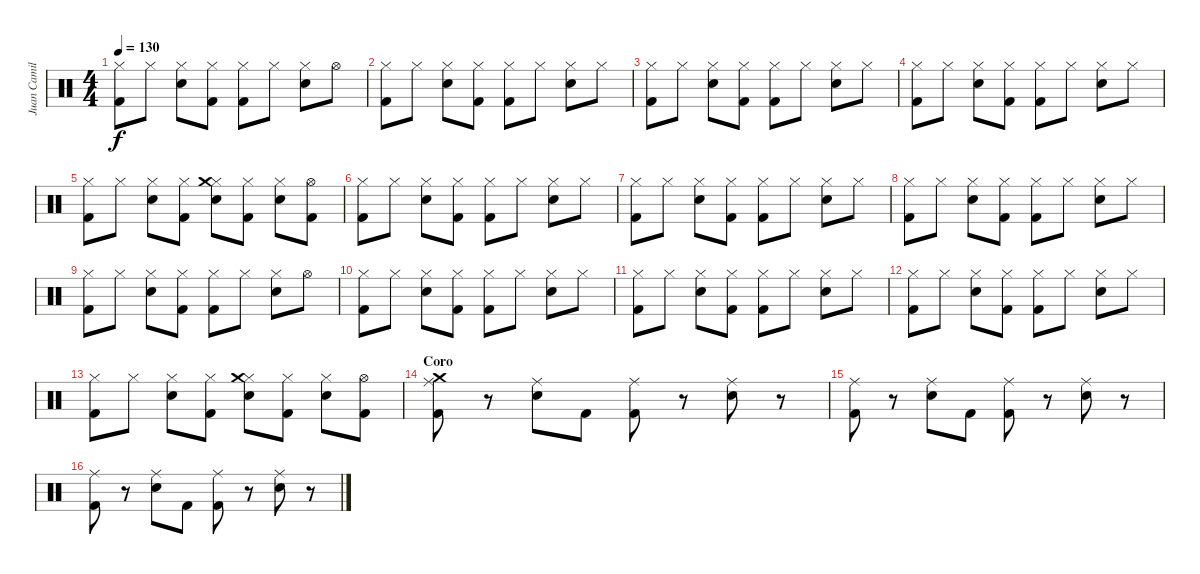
\track ("Juan Camilo" "Juan Camil") {instrument percussion}
\staff {score}
\articulation defaults
\ts (4 4)
\tempo 130
\clef neutral
\ks c
("Hi-Hat (closed)" "Kick (hit) 2").8{dy f} "Hi-Hat (closed)".8 ("Hi-Hat (closed)" "Electric Snare (hit)").8 ("Hi-Hat (closed)" "Kick (hit) 2").8 ("Hi-Hat (closed)" "Kick (hit) 2").8 "Hi-Hat (closed)".8 ("Hi-Hat (closed)" "Electric Snare (hit)").8 "Hi-Hat (open)".8 |
("Hi-Hat (closed)" "Kick (hit) 2").8 "Hi-Hat (closed)".8 ("Hi-Hat (closed)" "Electric Snare (hit)").8 ("Hi-Hat (closed)" "Kick (hit) 2").8 ("Hi-Hat (closed)" "Kick (hit) 2").8 "Hi-Hat (closed)".8 ("Hi-Hat (closed)" "Electric Snare (hit)").8 "Hi-Hat (closed)".8 |
("Hi-Hat (closed)" "Kick (hit) 2").8 "Hi-Hat (closed)".8 ("Hi-Hat (closed)" "Electric Snare (hit)").8 ("Hi-Hat (closed)" "Kick (hit) 2").8 ("Hi-Hat (closed)" "Kick (hit) 2").8 "Hi-Hat (closed)".8 ("Hi-Hat (closed)" "Electric Snare (hit)").8 "Hi-Hat (closed)".8 |
("Hi-Hat (closed)" "Kick (hit) 2").8 "Hi-Hat (closed)".8 ("Hi-Hat (closed)" "Electric Snare (hit)").8 ("Hi-Hat (closed)" "Kick (hit) 2").8 ("Hi-Hat (closed)" "Kick (hit) 2").8 "Hi-Hat (closed)".8 ("Hi-Hat (closed)" "Electric Snare (hit)").8 "Hi-Hat (closed)".8 |
("Hi-Hat (closed)" "Kick (hit) 2").8 "Hi-Hat (closed)".8 ("Hi-Hat (closed)" "Electric Snare (hit)").8 ("Hi-Hat (closed)" "Kick (hit) 2").8 ("Hi-Hat (closed)" "Electric Snare (hit)" "Crash medium (hit)").8 ("Hi-Hat (closed)" "Kick (hit) 2").8 ("Hi-Hat (closed)" "Electric Snare (hit)").8 ("Hi-Hat (open)" "Kick (hit) 2").8 |
("Hi-Hat (closed)" "Kick (hit) 2").8 "Hi-Hat (closed)".8 ("Hi-Hat (closed)" "Electric Snare (hit)").8 ("Hi-Hat (closed)" "Kick (hit) 2").8 ("Hi-Hat (closed)" "Kick (hit) 2").8 "Hi-Hat (closed)".8 ("Hi-Hat (closed)" "Electric Snare (hit)").8 "Hi-Hat (closed)".8 |
("Hi-Hat (closed)" "Kick (hit) 2").8 "Hi-Hat (closed)".8 ("Hi-Hat (closed)" "Electric Snare (hit)").8 ("Hi-Hat (closed)" "Kick (hit) 2").8 ("Hi-Hat (closed)" "Kick (hit) 2").8 "Hi-Hat (closed)".8 ("Hi-Hat (closed)" "Electric Snare (hit)").8 "Hi-Hat (closed)".8 |
("Hi-Hat (closed)" "Kick (hit) 2").8 "Hi-Hat (closed)".8 ("Hi-Hat (closed)" "Electric Snare (hit)").8 ("Hi-Hat (closed)" "Kick (hit) 2").8 ("Hi-Hat (closed)" "Kick (hit) 2").8 "Hi-Hat (closed)".8 ("Hi-Hat (closed)" "Electric Snare (hit)").8 "Hi-Hat (closed)".8 |
("Hi-Hat (closed)" "Kick (hit) 2").8 "Hi-Hat (closed)".8 ("Hi-Hat (closed)" "Electric Snare (hit)").8 ("Hi-Hat (closed)" "Kick (hit) 2").8 ("Hi-Hat (closed)" "Kick (hit) 2").8 "Hi-Hat (closed)".8 ("Hi-Hat (closed)" "Electric Snare (hit)").8 "Hi-Hat (open)".8 |
("Hi-Hat (closed)" "Kick (hit) 2").8 "Hi-Hat (closed)".8 ("Hi-Hat (closed)" "Electric Snare (hit)").8 ("Hi-Hat (closed)" "Kick (hit) 2").8 ("Hi-Hat (closed)" "Kick (hit) 2").8 "Hi-Hat (closed)".8 ("Hi-Hat (closed)" "Electric Snare (hit)").8 "Hi-Hat (closed)".8 |
("Hi-Hat (closed)" "Kick (hit) 2").8 "Hi-Hat (closed)".8 ("Hi-Hat (closed)" "Electric Snare (hit)").8 ("Hi-Hat (closed)" "Kick (hit) 2").8 ("Hi-Hat (closed)" "Kick (hit) 2").8 "Hi-Hat (closed)".8 ("Hi-Hat (closed)" "Electric Snare (hit)").8 "Hi-Hat (closed)".8 |
("Hi-Hat (closed)" "Kick (hit) 2").8 "Hi-Hat (closed)".8 ("Hi-Hat (closed)" "Electric Snare (hit)").8 ("Hi-Hat (closed)" "Kick (hit) 2").8 ("Hi-Hat (closed)" "Kick (hit) 2").8 "Hi-Hat (closed)".8 ("Hi-Hat (closed)" "Electric Snare (hit)").8 "Hi-Hat (closed)".8 |
("Hi-Hat (closed)" "Kick (hit) 2").8 "Hi-Hat (closed)".8 ("Hi-Hat (closed)" "Electric Snare (hit)").8 ("Hi-Hat (closed)" "Kick (hit) 2").8 ("Hi-Hat (closed)" "Electric Snare (hit)" "Crash medium (hit)").8 ("Hi-Hat (closed)" "Kick (hit) 2").8 ("Hi-Hat (closed)" "Electric Snare (hit)").8 ("Hi-Hat (open)" "Kick (hit) 2").8 |
\section ("" "Coro")
("Crash medium (hit)" "Ride (middle)" "Kick (hit) 2").8 r.8 ("Ride (middle)" "Electric Snare (hit)").8 "Kick (hit) 2".8 ("Ride (middle)" "Kick (hit) 2").8 r.8 ("Ride (middle)" "Electric Snare (hit)").8 r.8 |
("Ride (middle)" "Kick (hit) 2").8 r.8 ("Ride (middle)" "Electric Snare (hit)").8 "Kick (hit) 2".8 ("Ride (middle)" "Kick (hit) 2").8 r.8 ("Ride (middle)" "Electric Snare (hit)").8 r.8 |
("Ride (middle)" "Kick (hit) 2").8 r.8 ("Ride (middle)" "Electric Snare (hit)").8 "Kick (hit) 2".8 ("Ride (middle)" "Kick (hit) 2").8 r.8 ("Ride (middle)" "Electric Snare (hit)").8 r.8
